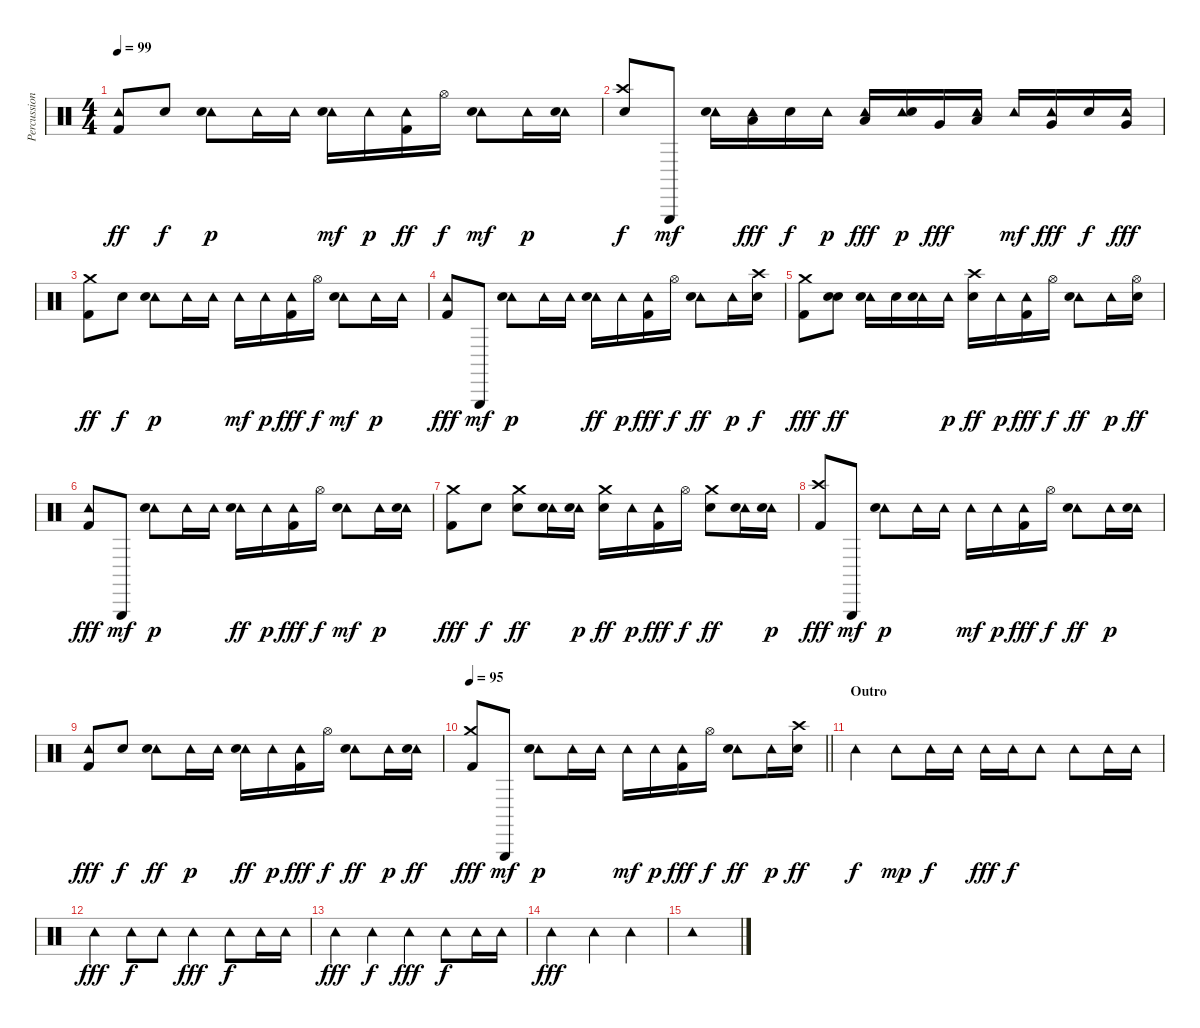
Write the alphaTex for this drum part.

\track ("Percussion" "Percussion") {instrument percussion}
\staff {score}
\articulation defaults
\ts (4 4)
\tempo 99
\clef neutral
\ks c
("Tambourine (hit)" "Kick (hit) 2").8{dy ff} "Metronome (bell)".8{dy f} ("Tambourine (hit)" "Snare (hit) 2").8{dy p} "Tambourine (hit)".16 "Tambourine (hit)".16 ("Tambourine (hit)" "Snare (hit) 2").16{dy mf} "Tambourine (hit)".16{dy p} ("Tambourine (hit)" "Kick (hit) 2").16{dy ff} "Hi-Hat (open)".16{dy f} ("Tambourine (hit)" "Snare (hit) 2").8{dy mf} "Tambourine (hit)".16{dy p} ("Tambourine (hit)" "Electric Snare (hit)").16 |
("Crash high (hit)" "Snare (hit) 2").8{dy f} "Triangle (hit)".8{dy mf} ("Tambourine (hit)" "Electric Snare (hit)").16 ("Tambourine (hit)" "Low Tom (hit)").16{dy fff} "Electric Snare (hit)".16{dy f} "Tambourine (hit)".16{dy p} ("Tambourine (hit)" "Low Tom (hit)").16{dy fff} ("Tambourine (hit)" "Electric Snare (hit)").16{dy p} "Very Low Tom (hit)".16{dy fff} ("Tambourine (hit)" "Low Tom (hit)").16 "Tambourine (hit)".16{dy mf} ("Tambourine (hit)" "Very Low Tom (hit)").16{dy fff} "Electric Snare (hit)".16{dy f} ("Tambourine (hit)" "Very Low Tom (hit)").16{dy fff} |
("Crash medium (hit)" "Kick (hit) 2").8{dy ff} "Metronome (bell)".8{dy f} ("Tambourine (hit)" "Snare (hit) 2").8{dy p} "Tambourine (hit)".16 "Tambourine (hit)".16 "Tambourine (hit)".16{dy mf} "Tambourine (hit)".16{dy p} ("Tambourine (hit)" "Kick (hit) 2").16{dy fff} "Hi-Hat (open)".16{dy f} ("Tambourine (hit)" "Snare (hit) 2").8{dy mf} "Tambourine (hit)".16{dy p} "Tambourine (hit)".16 |
("Tambourine (hit)" "Kick (hit) 2").8{dy fff} "Triangle (hit)".8{dy mf} ("Tambourine (hit)" "Snare (hit) 2").8{dy p} "Tambourine (hit)".16 "Tambourine (hit)".16 ("Tambourine (hit)" "Snare (hit) 2").16{dy ff} "Tambourine (hit)".16{dy p} ("Tambourine (hit)" "Kick (hit) 2").16{dy fff} "Hi-Hat (open)".16{dy f} ("Tambourine (hit)" "Snare (hit) 2").8{dy ff} "Tambourine (hit)".16{dy p} ("Crash high (hit)" "Snare (hit) 2").16{dy f} |
("Crash medium (hit)" "Kick (hit) 2").8{dy fff} ("Metronome (bell)" "Snare (hit) 2").8{dy ff} ("Tambourine (hit)" "Snare (hit) 2").16 "Electric Snare (hit)".16 ("Tambourine (hit)" "Snare (hit) 2").16 "Tambourine (hit)".16{dy p} ("Crash high (hit)" "Snare (hit) 2").16{dy ff} "Tambourine (hit)".16{dy p} ("Tambourine (hit)" "Kick (hit) 2").16{dy fff} "Hi-Hat (open)".16{dy f} ("Tambourine (hit)" "Snare (hit) 2").8{dy ff} "Tambourine (hit)".16{dy p} ("Hi-Hat (open)" "Snare (hit) 2").16{dy ff} |
("Tambourine (hit)" "Kick (hit) 2").8{dy fff} "Triangle (hit)".8{dy mf} ("Tambourine (hit)" "Snare (hit) 2").8{dy p} "Tambourine (hit)".16 "Tambourine (hit)".16 ("Tambourine (hit)" "Snare (hit) 2").16{dy ff} "Tambourine (hit)".16{dy p} ("Tambourine (hit)" "Kick (hit) 2").16{dy fff} "Hi-Hat (open)".16{dy f} ("Tambourine (hit)" "Snare (hit) 2").8{dy mf} "Tambourine (hit)".16{dy p} ("Tambourine (hit)" "Snare (hit) 2").16 |
("Crash medium (hit)" "Kick (hit) 2").8{dy fff} "Metronome (bell)".8{dy f} ("Crash medium (hit)" "Snare (hit) 2").8{dy ff} ("Tambourine (hit)" "Electric Snare (hit)").16 ("Tambourine (hit)" "Electric Snare (hit)").16{dy p} ("Crash medium (hit)" "Snare (hit) 2").16{dy ff} "Tambourine (hit)".16{dy p} ("Tambourine (hit)" "Kick (hit) 2").16{dy fff} "Hi-Hat (open)".16{dy f} ("Crash medium (hit)" "Snare (hit) 2").8{dy ff} ("Tambourine (hit)" "Electric Snare (hit)").16 ("Tambourine (hit)" "Electric Snare (hit)").16{dy p} |
("Crash high (hit)" "Kick (hit) 2").8{dy fff} "Triangle (hit)".8{dy mf} ("Tambourine (hit)" "Snare (hit) 2").8{dy p} "Tambourine (hit)".16 "Tambourine (hit)".16 "Tambourine (hit)".16{dy mf} "Tambourine (hit)".16{dy p} ("Tambourine (hit)" "Kick (hit) 2").16{dy fff} "Hi-Hat (open)".16{dy f} ("Tambourine (hit)" "Snare (hit) 2").8{dy ff} "Tambourine (hit)".16{dy p} ("Tambourine (hit)" "Electric Snare (hit)").16 |
("Tambourine (hit)" "Kick (hit) 2").8{dy fff} "Metronome (bell)".8{dy f} ("Tambourine (hit)" "Snare (hit) 2").8{dy ff} "Tambourine (hit)".16{dy p} "Tambourine (hit)".16 ("Tambourine (hit)" "Snare (hit) 2").16{dy ff} "Tambourine (hit)".16{dy p} ("Tambourine (hit)" "Kick (hit) 2").16{dy fff} "Hi-Hat (open)".16{dy f} ("Tambourine (hit)" "Snare (hit) 2").8{dy ff} "Tambourine (hit)".16{dy p} ("Tambourine (hit)" "Electric Snare (hit)").16{dy ff} |
\tempo 95
\barLineRight lightlight
("Crash medium (hit)" "Kick (hit) 2").8{dy fff} "Triangle (hit)".8{dy mf} ("Tambourine (hit)" "Snare (hit) 2").8{dy p} "Tambourine (hit)".16 "Tambourine (hit)".16 "Tambourine (hit)".16{dy mf} "Tambourine (hit)".16{dy p} ("Tambourine (hit)" "Kick (hit) 2").16{dy fff} "Hi-Hat (open)".16{dy f} ("Tambourine (hit)" "Snare (hit) 2").8{dy ff} "Tambourine (hit)".16{dy p} ("Crash high (hit)" "Electric Snare (hit)").16{dy ff} |
\section ("" "Outro")
"Tambourine (hit)".4{dy f} "Tambourine (hit)".8{dy mp} "Tambourine (hit)".16{dy f volume 5} "Tambourine (hit)".16 "Tambourine (hit)".16{dy fff} "Tambourine (hit)".16{dy f} "Tambourine (hit)".8 "Tambourine (hit)".8 "Tambourine (hit)".16 "Tambourine (hit)".16 |
"Tambourine (hit)".4{dy fff} "Tambourine (hit)".8{dy f} "Tambourine (hit)".8 "Tambourine (hit)".4{dy fff} "Tambourine (hit)".8{dy f} "Tambourine (hit)".16 "Tambourine (hit)".16 |
"Tambourine (hit)".4{dy fff} "Tambourine (hit)".4{dy f} "Tambourine (hit)".4{dy fff} "Tambourine (hit)".8{dy f} "Tambourine (hit)".16 "Tambourine (hit)".16 |
"Tambourine (hit)".2{dy fff} "Tambourine (hit)".4 "Tambourine (hit)".4 |
"Tambourine (hit)".1
